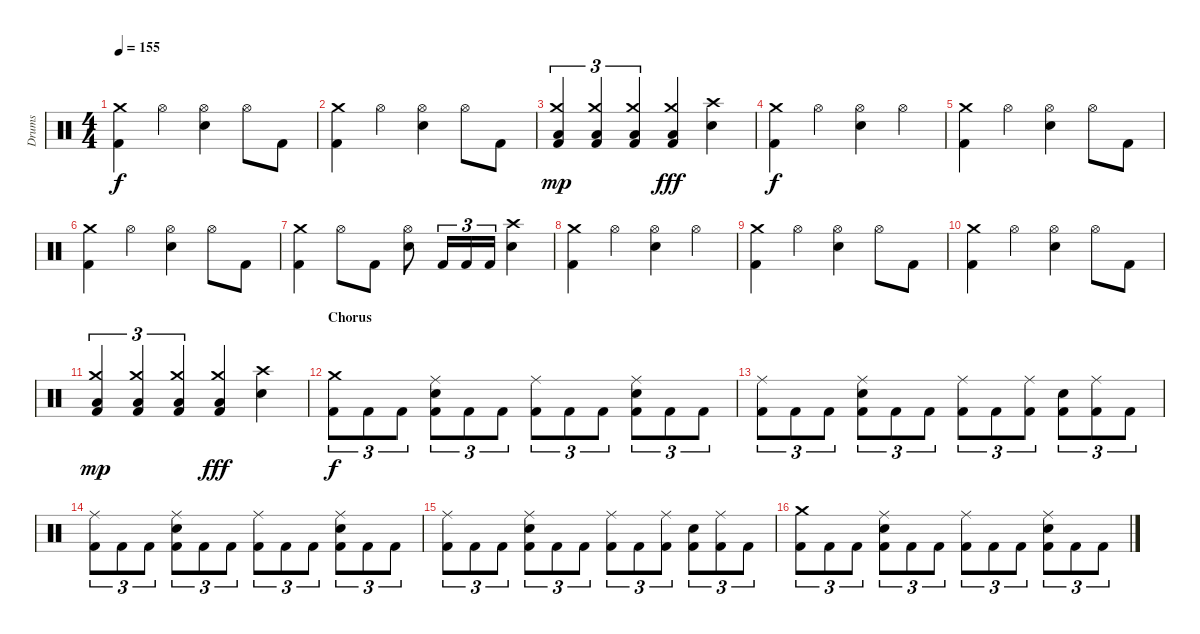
\track ("Drums" "Drums") {instrument percussion}
\staff {score}
\articulation defaults
\ts (4 4)
\tempo 155
\clef neutral
\ks c
("Kick (hit) 2" "Crash medium (hit)").4{dy f} "Hi-Hat (open)".4 ("Electric Snare (hit)" "Hi-Hat (open)").4 "Hi-Hat (open)".8 "Kick (hit) 2".8 |
("Kick (hit) 2" "Crash medium (hit)").4 "Hi-Hat (open)".4 ("Electric Snare (hit)" "Hi-Hat (open)").4 "Hi-Hat (open)".8 "Kick (hit) 2".8 |
("Kick (hit) 2" "Low Tom (hit)" "Crash medium (hit)").4{tu (3 2) dy mp} ("Kick (hit) 2" "Low Tom (hit)" "Crash medium (hit)").4{tu (3 2)} ("Kick (hit) 2" "Low Tom (hit)" "Crash medium (hit)").4{tu (3 2)} ("Kick (hit) 2" "Low Tom (hit)" "Crash medium (hit)").4{dy fff} ("Electric Snare (hit)" "Crash high (hit)").4 |
("Kick (hit) 2" "Crash medium (hit)").4{dy f} "Hi-Hat (open)".4 ("Electric Snare (hit)" "Hi-Hat (open)").4 "Hi-Hat (open)".4 |
("Kick (hit) 2" "Crash medium (hit)").4 "Hi-Hat (open)".4 ("Electric Snare (hit)" "Hi-Hat (open)").4 "Hi-Hat (open)".8 "Kick (hit) 2".8 |
("Kick (hit) 2" "Crash medium (hit)").4 "Hi-Hat (open)".4 ("Electric Snare (hit)" "Hi-Hat (open)").4 "Hi-Hat (open)".8 "Kick (hit) 2".8 |
("Kick (hit) 2" "Crash medium (hit)").4 "Hi-Hat (open)".8 "Kick (hit) 2".8 ("Electric Snare (hit)" "Hi-Hat (open)").8 "Kick (hit) 2".16{tu (3 2)} "Kick (hit) 2".16{tu (3 2)} "Kick (hit) 2".16{tu (3 2)} ("Electric Snare (hit)" "Crash high (hit)").4 |
("Kick (hit) 2" "Crash medium (hit)").4 "Hi-Hat (open)".4 ("Electric Snare (hit)" "Hi-Hat (open)").4 "Hi-Hat (open)".4 |
("Kick (hit) 2" "Crash medium (hit)").4 "Hi-Hat (open)".4 ("Electric Snare (hit)" "Hi-Hat (open)").4 "Hi-Hat (open)".8 "Kick (hit) 2".8 |
("Kick (hit) 2" "Crash medium (hit)").4 "Hi-Hat (open)".4 ("Electric Snare (hit)" "Hi-Hat (open)").4 "Hi-Hat (open)".8 "Kick (hit) 2".8 |
("Kick (hit) 2" "Low Tom (hit)" "Crash medium (hit)").4{tu (3 2) dy mp} ("Kick (hit) 2" "Low Tom (hit)" "Crash medium (hit)").4{tu (3 2)} ("Kick (hit) 2" "Low Tom (hit)" "Crash medium (hit)").4{tu (3 2)} ("Kick (hit) 2" "Low Tom (hit)" "Crash medium (hit)").4{dy fff} ("Electric Snare (hit)" "Crash high (hit)").4 |
\section ("" "Chorus")
("Kick (hit) 2" "Crash medium (hit)").8{tu (3 2) dy f} "Kick (hit) 2".8{tu (3 2)} "Kick (hit) 2".8{tu (3 2)} ("Kick (hit) 2" "Electric Snare (hit)" "Ride (middle)").8{tu (3 2)} "Kick (hit) 2".8{tu (3 2)} "Kick (hit) 2".8{tu (3 2)} ("Kick (hit) 2" "Ride (middle)").8{tu (3 2)} "Kick (hit) 2".8{tu (3 2)} "Kick (hit) 2".8{tu (3 2)} ("Kick (hit) 2" "Electric Snare (hit)" "Ride (middle)").8{tu (3 2)} "Kick (hit) 2".8{tu (3 2)} "Kick (hit) 2".8{tu (3 2)} |
("Kick (hit) 2" "Ride (middle)").8{tu (3 2)} "Kick (hit) 2".8{tu (3 2)} "Kick (hit) 2".8{tu (3 2)} ("Kick (hit) 2" "Electric Snare (hit)" "Ride (middle)").8{tu (3 2)} "Kick (hit) 2".8{tu (3 2)} "Kick (hit) 2".8{tu (3 2)} ("Kick (hit) 2" "Ride (middle)").8{tu (3 2)} "Kick (hit) 2".8{tu (3 2)} ("Kick (hit) 2" "Ride (middle)").8{tu (3 2)} ("Kick (hit) 2" "Electric Snare (hit)").8{tu (3 2)} ("Kick (hit) 2" "Ride (middle)").8{tu (3 2)} "Kick (hit) 2".8{tu (3 2)} |
("Kick (hit) 2" "Ride (middle)").8{tu (3 2)} "Kick (hit) 2".8{tu (3 2)} "Kick (hit) 2".8{tu (3 2)} ("Kick (hit) 2" "Electric Snare (hit)" "Ride (middle)").8{tu (3 2)} "Kick (hit) 2".8{tu (3 2)} "Kick (hit) 2".8{tu (3 2)} ("Kick (hit) 2" "Ride (middle)").8{tu (3 2)} "Kick (hit) 2".8{tu (3 2)} "Kick (hit) 2".8{tu (3 2)} ("Kick (hit) 2" "Electric Snare (hit)" "Ride (middle)").8{tu (3 2)} "Kick (hit) 2".8{tu (3 2)} "Kick (hit) 2".8{tu (3 2)} |
("Kick (hit) 2" "Ride (middle)").8{tu (3 2)} "Kick (hit) 2".8{tu (3 2)} "Kick (hit) 2".8{tu (3 2)} ("Kick (hit) 2" "Electric Snare (hit)" "Ride (middle)").8{tu (3 2)} "Kick (hit) 2".8{tu (3 2)} "Kick (hit) 2".8{tu (3 2)} ("Kick (hit) 2" "Ride (middle)").8{tu (3 2)} "Kick (hit) 2".8{tu (3 2)} ("Kick (hit) 2" "Ride (middle)").8{tu (3 2)} ("Kick (hit) 2" "Electric Snare (hit)").8{tu (3 2)} ("Kick (hit) 2" "Ride (middle)").8{tu (3 2)} "Kick (hit) 2".8{tu (3 2)} |
("Kick (hit) 2" "Crash medium (hit)").8{tu (3 2)} "Kick (hit) 2".8{tu (3 2)} "Kick (hit) 2".8{tu (3 2)} ("Kick (hit) 2" "Electric Snare (hit)" "Ride (middle)").8{tu (3 2)} "Kick (hit) 2".8{tu (3 2)} "Kick (hit) 2".8{tu (3 2)} ("Kick (hit) 2" "Ride (middle)").8{tu (3 2)} "Kick (hit) 2".8{tu (3 2)} "Kick (hit) 2".8{tu (3 2)} ("Kick (hit) 2" "Electric Snare (hit)" "Ride (middle)").8{tu (3 2)} "Kick (hit) 2".8{tu (3 2)} "Kick (hit) 2".8{tu (3 2)}
